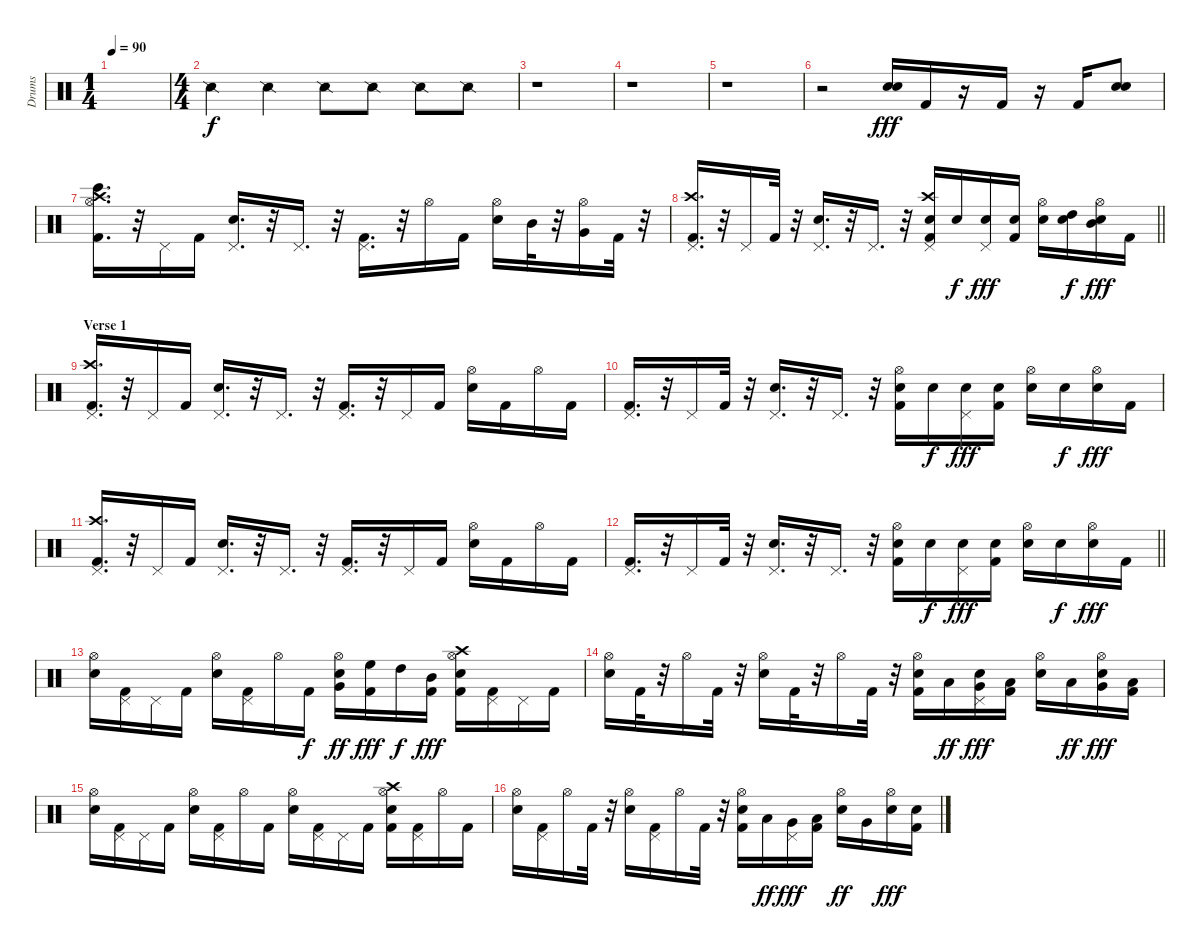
\track ("Drums" "Drums") {instrument percussion}
\staff {score}
\articulation defaults
\ts (1 4)
\tempo 90
\clef neutral
\ks c
|
\ts (4 4)
"Snare (side stick) 2".4 "Snare (side stick) 2".4 "Snare (side stick) 2".8 "Snare (side stick) 2".8 "Snare (side stick) 2".8 "Snare (side stick) 2".8 |
r.1 |
r.1 |
r.1 |
r.2 ("Electric Snare (hit)" "Electric Snare (hit)").16{dy fff} "Kick (hit) 2".16 r.16 "Kick (hit) 2".16 r.16 "Kick (hit) 2".16 ("Electric Snare (hit)" "Electric Snare (hit)").8 |
("Bongo High (hit)" "Crash high (hit)" "Kick (hit) 2" "Hi-Hat (open)").16{d} r.32 "Pedal Hi-Hat (hit)".16 "Kick (hit) 2".16 ("Electric Snare (hit)" "Pedal Hi-Hat (hit)").16{d} r.32 "Pedal Hi-Hat (hit)".16{d} r.32 ("Kick (hit) 2" "Pedal Hi-Hat (hit)").16{d} r.32 "Hi-Hat (open)".16 "Kick (hit) 2".16 ("Electric Snare (hit)" "Hi-Hat (open)").16 "Mid Tom (hit)".32 r.32 ("Hi-Hat (open)" "Very Low Tom (hit)").16 "Kick (hit) 2".32 r.32 |
\barLineRight lightlight
("Crash high (hit)" "Kick (hit) 2" "Pedal Hi-Hat (hit)").16{d} r.32 "Pedal Hi-Hat (hit)".16 "Kick (hit) 2".32 r.32 ("Electric Snare (hit)" "Pedal Hi-Hat (hit)").16{d} r.32 "Pedal Hi-Hat (hit)".16{d} r.32 ("Electric Snare (hit)" "Crash high (hit)" "Kick (hit) 2" "Pedal Hi-Hat (hit)").16 "Electric Snare (hit)".16{dy f} ("Electric Snare (hit)" "Pedal Hi-Hat (hit)").16{dy fff} ("Electric Snare (hit)" "Kick (hit) 2").16 ("Electric Snare (hit)" "Hi-Hat (open)").16 ("High Tom (hit)" "Electric Snare (hit)").16{dy f} ("Mid Tom (hit)" "Electric Snare (hit)" "Hi-Hat (open)").16{dy fff} "Kick (hit) 2".16 |
\section ("" "Verse 1")
("Crash high (hit)" "Kick (hit) 2" "Pedal Hi-Hat (hit)").16{d} r.32 "Pedal Hi-Hat (hit)".16 "Kick (hit) 2".16 ("Electric Snare (hit)" "Pedal Hi-Hat (hit)").16{d} r.32 "Pedal Hi-Hat (hit)".16{d} r.32 ("Pedal Hi-Hat (hit)" "Kick (hit) 2").16{d} r.32 "Pedal Hi-Hat (hit)".16 "Kick (hit) 2".16 ("Hi-Hat (open)" "Electric Snare (hit)").16 "Kick (hit) 2".16 "Hi-Hat (open)".16 "Kick (hit) 2".16 |
("Pedal Hi-Hat (hit)" "Kick (hit) 2").16{d} r.32 "Pedal Hi-Hat (hit)".16 "Kick (hit) 2".32 r.32 ("Pedal Hi-Hat (hit)" "Electric Snare (hit)").16{d} r.32 "Pedal Hi-Hat (hit)".16{d} r.32 ("Hi-Hat (open)" "Electric Snare (hit)" "Kick (hit) 2").16 "Electric Snare (hit)".16{dy f} ("Pedal Hi-Hat (hit)" "Electric Snare (hit)").16{dy fff} ("Electric Snare (hit)" "Kick (hit) 2").16 ("Hi-Hat (open)" "Electric Snare (hit)").16 "Electric Snare (hit)".16{dy f} ("Hi-Hat (open)" "Electric Snare (hit)").16{dy fff} "Kick (hit) 2".16 |
("Crash high (hit)" "Kick (hit) 2" "Pedal Hi-Hat (hit)").16{d} r.32 "Pedal Hi-Hat (hit)".16 "Kick (hit) 2".16 ("Electric Snare (hit)" "Pedal Hi-Hat (hit)").16{d} r.32 "Pedal Hi-Hat (hit)".16{d} r.32 ("Pedal Hi-Hat (hit)" "Kick (hit) 2").16{d} r.32 "Pedal Hi-Hat (hit)".16 "Kick (hit) 2".16 ("Hi-Hat (open)" "Electric Snare (hit)").16 "Kick (hit) 2".16 "Hi-Hat (open)".16 "Kick (hit) 2".16 |
\barLineRight lightlight
("Pedal Hi-Hat (hit)" "Kick (hit) 2").16{d} r.32 "Pedal Hi-Hat (hit)".16 "Kick (hit) 2".32 r.32 ("Pedal Hi-Hat (hit)" "Electric Snare (hit)").16{d} r.32 "Pedal Hi-Hat (hit)".16{d} r.32 ("Hi-Hat (open)" "Electric Snare (hit)" "Kick (hit) 2").16 "Electric Snare (hit)".16{dy f} ("Pedal Hi-Hat (hit)" "Electric Snare (hit)").16{dy fff} ("Electric Snare (hit)" "Kick (hit) 2").16 ("Hi-Hat (open)" "Electric Snare (hit)").16 "Electric Snare (hit)".16{dy f} ("Hi-Hat (open)" "Electric Snare (hit)").16{dy fff} "Kick (hit) 2".16 |
("Hi-Hat (open)" "Electric Snare (hit)").16 ("Kick (hit) 2" "Pedal Hi-Hat (hit)").16 "Pedal Hi-Hat (hit)".16 "Kick (hit) 2".16 ("Electric Snare (hit)" "Hi-Hat (open)").16 ("Kick (hit) 2" "Pedal Hi-Hat (hit)").16 "Hi-Hat (open)".16 "Kick (hit) 2".16{dy f} ("Electric Snare (hit)" "Hi-Hat (open)" "Very Low Tom (hit)").16{dy ff} ("Kick (hit) 2" "High Floor Tom (hit)").16{dy fff} "High Tom (hit)".16{dy f} ("Kick (hit) 2" "Mid Tom (hit)").16{dy fff} ("Kick (hit) 2" "Crash high (hit)" "Hi-Hat (open)" "Electric Snare (hit)").16 ("Kick (hit) 2" "Pedal Hi-Hat (hit)").16 "Pedal Hi-Hat (hit)".16 "Kick (hit) 2".16 |
("Hi-Hat (open)" "Electric Snare (hit)").16 "Kick (hit) 2".32 r.32 "Hi-Hat (open)".16 "Kick (hit) 2".32 r.32 ("Hi-Hat (open)" "Electric Snare (hit)").16 "Kick (hit) 2".32 r.32 "Hi-Hat (open)".16 "Kick (hit) 2".32 r.32 ("Hi-Hat (open)" "Electric Snare (hit)" "Kick (hit) 2").16 "Low Tom (hit)".16{dy ff} ("Electric Snare (hit)" "Pedal Hi-Hat (hit)" "Very Low Tom (hit)").16{dy fff} ("Low Floor Tom (hit)" "Kick (hit) 2").16 ("Hi-Hat (open)" "Electric Snare (hit)").16 "Low Tom (hit)".16{dy ff} ("Electric Snare (hit)" "Hi-Hat (open)" "Very Low Tom (hit)").16{dy fff} ("Low Floor Tom (hit)" "Kick (hit) 2").16 |
("Hi-Hat (open)" "Electric Snare (hit)").16 ("Pedal Hi-Hat (hit)" "Kick (hit) 2").16 "Pedal Hi-Hat (hit)".16 "Kick (hit) 2".16 ("Electric Snare (hit)" "Hi-Hat (open)").16 ("Pedal Hi-Hat (hit)" "Kick (hit) 2").16 "Hi-Hat (open)".16 "Kick (hit) 2".16 ("Electric Snare (hit)" "Hi-Hat (open)").16 ("Pedal Hi-Hat (hit)" "Kick (hit) 2").16 "Pedal Hi-Hat (hit)".16 "Kick (hit) 2".16 ("Kick (hit) 2" "Crash high (hit)" "Hi-Hat (open)" "Electric Snare (hit)").16 ("Pedal Hi-Hat (hit)" "Kick (hit) 2").16 "Hi-Hat (open)".16 "Kick (hit) 2".16 |
("Hi-Hat (open)" "Electric Snare (hit)").16 ("Pedal Hi-Hat (hit)" "Kick (hit) 2").16 "Hi-Hat (open)".16 "Kick (hit) 2".32 r.32 ("Hi-Hat (open)" "Electric Snare (hit)").16 ("Pedal Hi-Hat (hit)" "Kick (hit) 2").16 "Hi-Hat (open)".16 "Kick (hit) 2".32 r.32 ("Hi-Hat (open)" "Electric Snare (hit)" "Kick (hit) 2").16 "Low Tom (hit)".16{dy ff} ("Pedal Hi-Hat (hit)" "Very Low Tom (hit)").16{dy fff} ("Low Floor Tom (hit)" "Kick (hit) 2").16 ("Hi-Hat (open)" "Electric Snare (hit)").16{dy ff} "Very Low Tom (hit)".16 ("Hi-Hat (open)" "Electric Snare (hit)").16{dy fff} ("Electric Snare (hit)" "Kick (hit) 2").16
